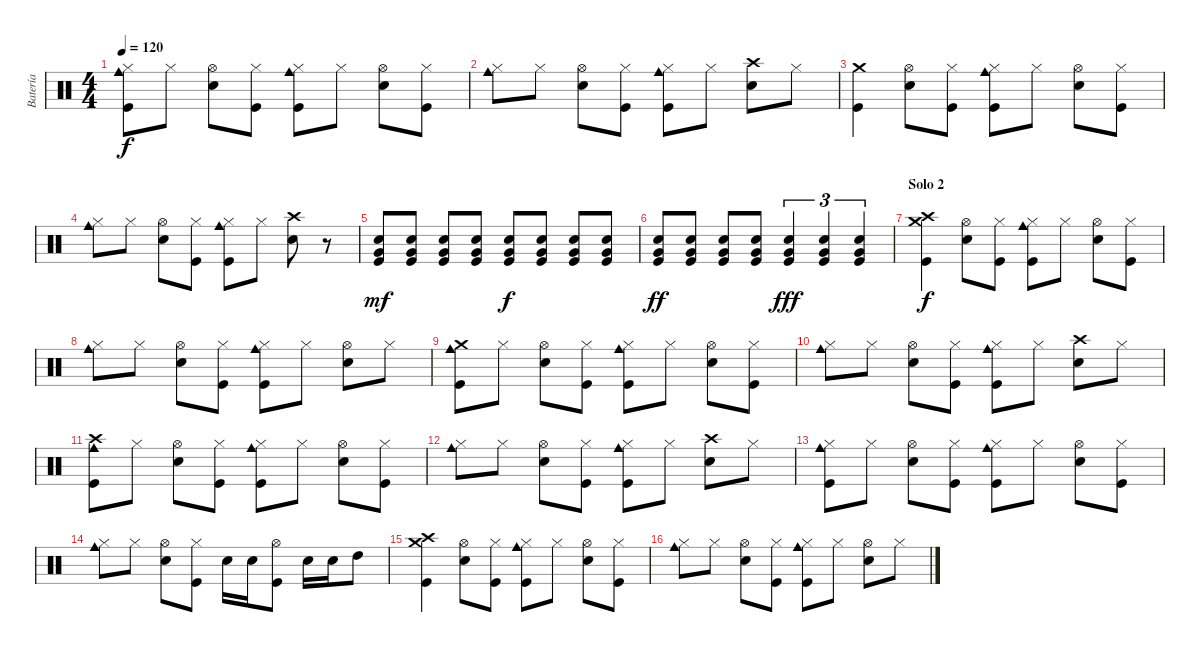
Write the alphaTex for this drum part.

\track ("Batería" "Batería") {instrument percussion}
\staff {score}
\articulation defaults
\ts (4 4)
\tempo 120
\clef neutral
\ks c
("Hi-Hat (closed)" "Cowbell medium (hit)" "Kick (hit)").8{dy f} "Hi-Hat (closed)".8 ("Hi-Hat (open)" "Electric Snare (hit)").8 ("Hi-Hat (closed)" "Kick (hit)").8 ("Hi-Hat (closed)" "Cowbell medium (hit)" "Kick (hit)").8 "Hi-Hat (closed)".8 ("Hi-Hat (open)" "Electric Snare (hit)").8 ("Hi-Hat (closed)" "Kick (hit)").8 |
("Hi-Hat (closed)" "Cowbell medium (hit)").8 "Hi-Hat (closed)".8 ("Hi-Hat (open)" "Electric Snare (hit)").8 ("Hi-Hat (closed)" "Kick (hit)").8 ("Hi-Hat (closed)" "Cowbell medium (hit)" "Kick (hit)").8 "Hi-Hat (closed)".8 ("Crash high (hit)" "Electric Snare (hit)").8 "Hi-Hat (closed)".8 |
("Crash medium (hit)" "Kick (hit)").4 ("Hi-Hat (open)" "Electric Snare (hit)").8 ("Hi-Hat (closed)" "Kick (hit)").8 ("Hi-Hat (closed)" "Cowbell medium (hit)" "Kick (hit)").8 "Hi-Hat (closed)".8 ("Hi-Hat (open)" "Electric Snare (hit)").8 ("Hi-Hat (closed)" "Kick (hit)").8 |
("Hi-Hat (closed)" "Cowbell medium (hit)").8 "Hi-Hat (closed)".8 ("Hi-Hat (open)" "Electric Snare (hit)").8 ("Hi-Hat (closed)" "Kick (hit)").8 ("Hi-Hat (closed)" "Cowbell medium (hit)" "Kick (hit)").8 "Hi-Hat (closed)".8 ("Crash high (hit)" "Electric Snare (hit)").8 r.8 |
("Very Low Tom (hit)" "Electric Snare (hit)" "Kick (hit)").8{dy mf} ("Very Low Tom (hit)" "Electric Snare (hit)" "Kick (hit)").8 ("Very Low Tom (hit)" "Electric Snare (hit)" "Kick (hit)").8 ("Very Low Tom (hit)" "Electric Snare (hit)" "Kick (hit)").8 ("Very Low Tom (hit)" "Electric Snare (hit)" "Kick (hit)").8{dy f} ("Very Low Tom (hit)" "Electric Snare (hit)" "Kick (hit)").8 ("Very Low Tom (hit)" "Electric Snare (hit)" "Kick (hit)").8 ("Very Low Tom (hit)" "Electric Snare (hit)" "Kick (hit)").8 |
("Very Low Tom (hit)" "Electric Snare (hit)" "Kick (hit)").8{dy ff} ("Very Low Tom (hit)" "Electric Snare (hit)" "Kick (hit)").8 ("Very Low Tom (hit)" "Electric Snare (hit)" "Kick (hit)").8 ("Very Low Tom (hit)" "Electric Snare (hit)" "Kick (hit)").8 ("Very Low Tom (hit)" "Electric Snare (hit)" "Kick (hit)").4{tu (3 2) dy fff} ("Very Low Tom (hit)" "Electric Snare (hit)" "Kick (hit)").4{tu (3 2)} ("Very Low Tom (hit)" "Electric Snare (hit)" "Kick (hit)").4{tu (3 2)} |
\section ("" "Solo 2")
("Crash medium (hit)" "Crash high (hit)" "Kick (hit)").4{dy f} ("Hi-Hat (open)" "Electric Snare (hit)").8 ("Hi-Hat (closed)" "Kick (hit)").8 ("Hi-Hat (closed)" "Cowbell medium (hit)" "Kick (hit)").8 "Hi-Hat (closed)".8 ("Hi-Hat (open)" "Electric Snare (hit)").8 ("Hi-Hat (closed)" "Kick (hit)").8 |
("Hi-Hat (closed)" "Cowbell medium (hit)").8 "Hi-Hat (closed)".8 ("Hi-Hat (open)" "Electric Snare (hit)").8 ("Hi-Hat (closed)" "Kick (hit)").8 ("Hi-Hat (closed)" "Cowbell medium (hit)" "Kick (hit)").8 "Hi-Hat (closed)".8 ("Hi-Hat (open)" "Electric Snare (hit)").8 "Hi-Hat (closed)".8 |
("Crash medium (hit)" "Cowbell medium (hit)" "Kick (hit)").8 "Hi-Hat (closed)".8 ("Hi-Hat (open)" "Electric Snare (hit)").8 ("Hi-Hat (closed)" "Kick (hit)").8 ("Hi-Hat (closed)" "Cowbell medium (hit)" "Kick (hit)").8 "Hi-Hat (closed)".8 ("Hi-Hat (open)" "Electric Snare (hit)").8 ("Hi-Hat (closed)" "Kick (hit)").8 |
("Hi-Hat (closed)" "Cowbell medium (hit)").8 "Hi-Hat (closed)".8 ("Hi-Hat (open)" "Electric Snare (hit)").8 ("Hi-Hat (closed)" "Kick (hit)").8 ("Hi-Hat (closed)" "Cowbell medium (hit)" "Kick (hit)").8 "Hi-Hat (closed)".8 ("Crash high (hit)" "Electric Snare (hit)").8 "Hi-Hat (closed)".8 |
("Crash high (hit)" "Cowbell medium (hit)" "Kick (hit)").8 "Hi-Hat (closed)".8 ("Hi-Hat (open)" "Electric Snare (hit)").8 ("Hi-Hat (closed)" "Kick (hit)").8 ("Hi-Hat (closed)" "Cowbell medium (hit)" "Kick (hit)").8 "Hi-Hat (closed)".8 ("Hi-Hat (open)" "Electric Snare (hit)").8 ("Hi-Hat (closed)" "Kick (hit)").8 |
("Hi-Hat (closed)" "Cowbell medium (hit)").8 "Hi-Hat (closed)".8 ("Hi-Hat (open)" "Electric Snare (hit)").8 ("Hi-Hat (closed)" "Kick (hit)").8 ("Hi-Hat (closed)" "Cowbell medium (hit)" "Kick (hit)").8 "Hi-Hat (closed)".8 ("Crash high (hit)" "Electric Snare (hit)").8 "Hi-Hat (closed)".8 |
("Hi-Hat (closed)" "Cowbell medium (hit)" "Kick (hit)").8 "Hi-Hat (closed)".8 ("Hi-Hat (open)" "Electric Snare (hit)").8 ("Hi-Hat (closed)" "Kick (hit)").8 ("Hi-Hat (closed)" "Cowbell medium (hit)" "Kick (hit)").8 "Hi-Hat (closed)".8 ("Hi-Hat (open)" "Electric Snare (hit)").8 ("Hi-Hat (closed)" "Kick (hit)").8 |
("Hi-Hat (closed)" "Cowbell medium (hit)").8 "Hi-Hat (closed)".8 ("Hi-Hat (open)" "Electric Snare (hit)").8 ("Hi-Hat (closed)" "Kick (hit)").8 "Electric Snare (hit)".16 "Electric Snare (hit)".16 ("Hi-Hat (open)" "Kick (hit)").8 "Electric Snare (hit)".16 "Electric Snare (hit)".16 "High Tom (hit)".8 |
("Crash medium (hit)" "Crash high (hit)" "Kick (hit)").4 ("Hi-Hat (open)" "Electric Snare (hit)").8 ("Hi-Hat (closed)" "Kick (hit)").8 ("Hi-Hat (closed)" "Cowbell medium (hit)" "Kick (hit)").8 "Hi-Hat (closed)".8 ("Hi-Hat (open)" "Electric Snare (hit)").8 ("Hi-Hat (closed)" "Kick (hit)").8 |
("Hi-Hat (closed)" "Cowbell medium (hit)").8 "Hi-Hat (closed)".8 ("Hi-Hat (open)" "Electric Snare (hit)").8 ("Hi-Hat (closed)" "Kick (hit)").8 ("Hi-Hat (closed)" "Cowbell medium (hit)" "Kick (hit)").8 "Hi-Hat (closed)".8 ("Hi-Hat (open)" "Electric Snare (hit)").8 "Hi-Hat (closed)".8
